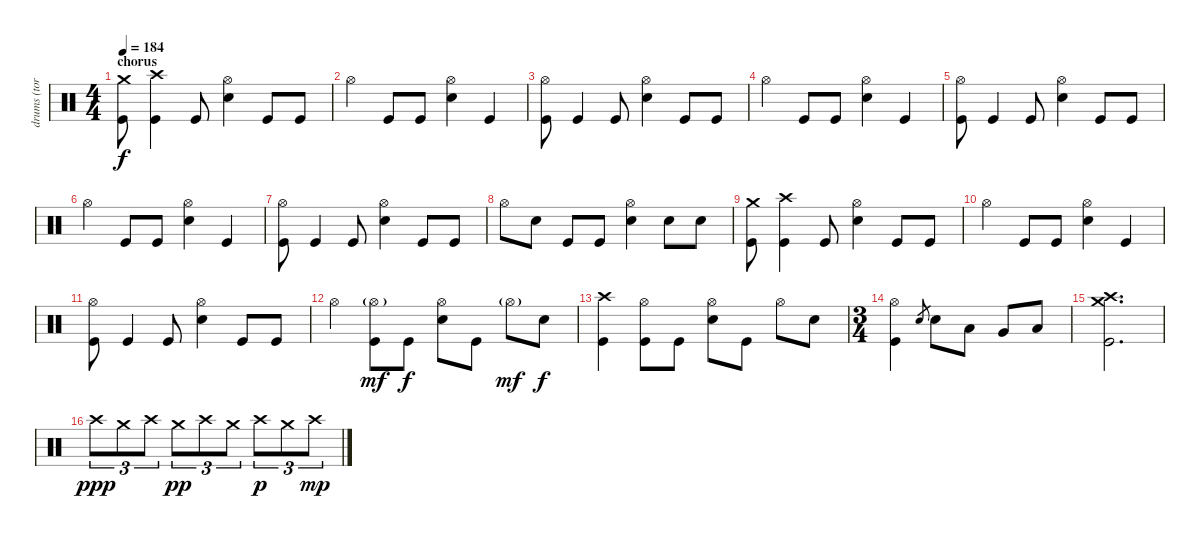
\track ("drums (tora)" "drums (tor") {instrument percussion}
\staff {score}
\articulation defaults
\ts (4 4)
\section ("" "chorus")
\tempo 184
\clef neutral
\ks c
("Crash medium (hit)" "Kick (hit)").8{dy f} ("Crash high (hit)" "Kick (hit)").4 "Kick (hit)".8 ("Hi-Hat (open)" "Snare (hit) 2").4 "Kick (hit)".8 "Kick (hit)".8 |
"Hi-Hat (open)".4 "Kick (hit)".8 "Kick (hit)".8 ("Hi-Hat (open)" "Snare (hit) 2").4 "Kick (hit)".4 |
("Hi-Hat (open)" "Kick (hit)").8 "Kick (hit)".4 "Kick (hit)".8 ("Hi-Hat (open)" "Snare (hit) 2").4 "Kick (hit)".8 "Kick (hit)".8 |
"Hi-Hat (open)".4 "Kick (hit)".8 "Kick (hit)".8 ("Hi-Hat (open)" "Snare (hit) 2").4 "Kick (hit)".4 |
("Hi-Hat (open)" "Kick (hit)").8 "Kick (hit)".4 "Kick (hit)".8 ("Hi-Hat (open)" "Snare (hit) 2").4 "Kick (hit)".8 "Kick (hit)".8 |
"Hi-Hat (open)".4 "Kick (hit)".8 "Kick (hit)".8 ("Hi-Hat (open)" "Snare (hit) 2").4 "Kick (hit)".4 |
("Hi-Hat (open)" "Kick (hit)").8 "Kick (hit)".4 "Kick (hit)".8 ("Hi-Hat (open)" "Snare (hit) 2").4 "Kick (hit)".8 "Kick (hit)".8 |
"Hi-Hat (open)".8 "Snare (hit) 2".8 "Kick (hit)".8 "Kick (hit)".8 ("Hi-Hat (open)" "Snare (hit) 2").4 "Snare (hit) 2".8 "Snare (hit) 2".8 |
("Crash medium (hit)" "Kick (hit)").8 ("Crash high (hit)" "Kick (hit)").4 "Kick (hit)".8 ("Hi-Hat (open)" "Snare (hit) 2").4 "Kick (hit)".8 "Kick (hit)".8 |
"Hi-Hat (open)".4 "Kick (hit)".8 "Kick (hit)".8 ("Hi-Hat (open)" "Snare (hit) 2").4 "Kick (hit)".4 |
("Hi-Hat (open)" "Kick (hit)").8 "Kick (hit)".4 "Kick (hit)".8 ("Hi-Hat (open)" "Snare (hit) 2").4 "Kick (hit)".8 "Kick (hit)".8 |
"Hi-Hat (open)".4 ("Hi-Hat (open)"{g} "Kick (hit)").8{dy mf} "Kick (hit)".8{dy f} ("Hi-Hat (open)" "Snare (hit) 2").8 "Kick (hit)".8 "Hi-Hat (open)"{g}.8{dy mf} "Snare (hit) 2".8{dy f} |
("Crash high (hit)" "Kick (hit)").4 ("Hi-Hat (open)" "Kick (hit)").8 "Kick (hit)".8 ("Hi-Hat (open)" "Snare (hit) 2").8 "Kick (hit)".8 "Hi-Hat (open)".8 "Snare (hit) 2".8 |
\ts (3 4)
("Hi-Hat (open)" "Kick (hit)").4 "Snare (hit) 2"{x}.8{gr} "Snare (hit) 2".8 "Low Tom (hit)".8 "Very Low Tom (hit)".8 "Low Floor Tom (hit)".8 |
("Crash high (hit)" "Crash medium (hit)" "Kick (hit)").2{d} |
"Crash high (hit)".8{tu (3 2) dy ppp} "Crash medium (hit)".8{tu (3 2)} "Crash high (hit)".8{tu (3 2)} "Crash medium (hit)".8{tu (3 2) dy pp} "Crash high (hit)".8{tu (3 2)} "Crash medium (hit)".8{tu (3 2)} "Crash high (hit)".8{tu (3 2) dy p} "Crash medium (hit)".8{tu (3 2)} "Crash high (hit)".8{tu (3 2) dy mp}
